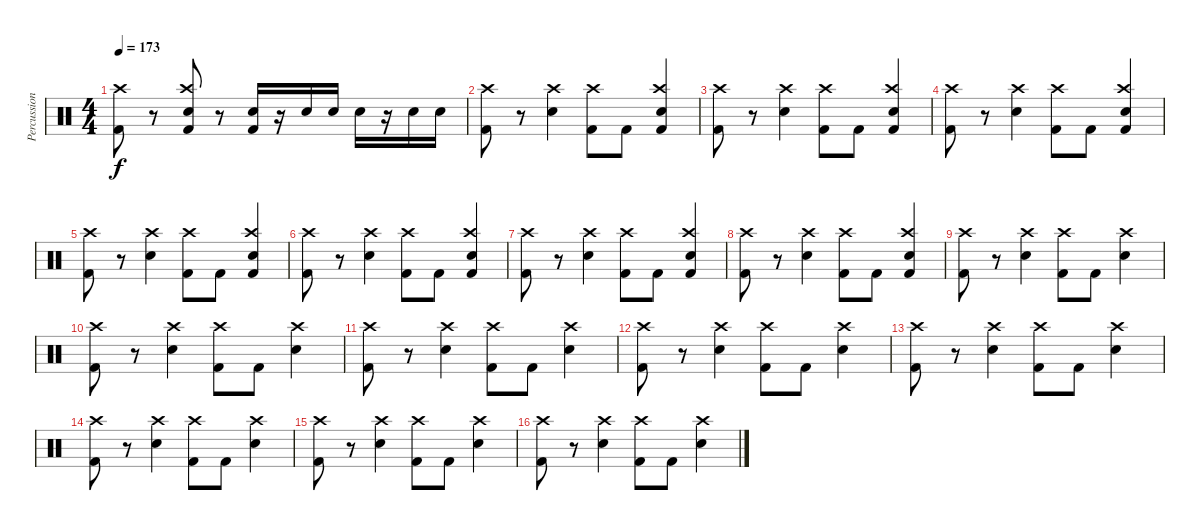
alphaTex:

\track ("Percussion" "Percussion") {instrument percussion}
\staff {score}
\articulation defaults
\ts (4 4)
\tempo 173
\clef neutral
\ks c
("Kick (hit) 2" "Crash high (hit)").8{dy f} r.8 ("Kick (hit) 2" "Electric Snare (hit)" "Crash high (hit)").8 r.8 ("Kick (hit) 2" "Electric Snare (hit)").16 r.16 "Electric Snare (hit)".16 "Electric Snare (hit)".16 "Electric Snare (hit)".16 r.16 "Electric Snare (hit)".16 "Electric Snare (hit)".16 |
("Kick (hit) 2" "Crash high (hit)").8 r.8 ("Electric Snare (hit)" "Crash high (hit)").4 ("Kick (hit) 2" "Crash high (hit)").8 "Kick (hit) 2".8 ("Kick (hit) 2" "Electric Snare (hit)" "Crash high (hit)").4 |
("Kick (hit) 2" "Crash high (hit)").8 r.8 ("Electric Snare (hit)" "Crash high (hit)").4 ("Kick (hit) 2" "Crash high (hit)").8 "Kick (hit) 2".8 ("Kick (hit) 2" "Electric Snare (hit)" "Crash high (hit)").4 |
("Kick (hit) 2" "Crash high (hit)").8 r.8 ("Electric Snare (hit)" "Crash high (hit)").4 ("Kick (hit) 2" "Crash high (hit)").8 "Kick (hit) 2".8 ("Kick (hit) 2" "Electric Snare (hit)" "Crash high (hit)").4 |
("Kick (hit) 2" "Crash high (hit)").8 r.8 ("Electric Snare (hit)" "Crash high (hit)").4 ("Kick (hit) 2" "Crash high (hit)").8 "Kick (hit) 2".8 ("Kick (hit) 2" "Electric Snare (hit)" "Crash high (hit)").4 |
("Kick (hit) 2" "Crash high (hit)").8 r.8 ("Electric Snare (hit)" "Crash high (hit)").4 ("Kick (hit) 2" "Crash high (hit)").8 "Kick (hit) 2".8 ("Kick (hit) 2" "Electric Snare (hit)" "Crash high (hit)").4 |
("Kick (hit) 2" "Crash high (hit)").8 r.8 ("Electric Snare (hit)" "Crash high (hit)").4 ("Kick (hit) 2" "Crash high (hit)").8 "Kick (hit) 2".8 ("Kick (hit) 2" "Electric Snare (hit)" "Crash high (hit)").4 |
("Kick (hit) 2" "Crash high (hit)").8 r.8 ("Electric Snare (hit)" "Crash high (hit)").4 ("Kick (hit) 2" "Crash high (hit)").8 "Kick (hit) 2".8 ("Kick (hit) 2" "Electric Snare (hit)" "Crash high (hit)").4 |
("Kick (hit) 2" "Crash high (hit)").8 r.8 ("Electric Snare (hit)" "Crash high (hit)").4 ("Kick (hit) 2" "Crash high (hit)").8 "Kick (hit) 2".8 ("Electric Snare (hit)" "Crash high (hit)").4 |
("Kick (hit) 2" "Crash high (hit)").8 r.8 ("Electric Snare (hit)" "Crash high (hit)").4 ("Kick (hit) 2" "Crash high (hit)").8 "Kick (hit) 2".8 ("Electric Snare (hit)" "Crash high (hit)").4 |
("Kick (hit) 2" "Crash high (hit)").8 r.8 ("Electric Snare (hit)" "Crash high (hit)").4 ("Kick (hit) 2" "Crash high (hit)").8 "Kick (hit) 2".8 ("Electric Snare (hit)" "Crash high (hit)").4 |
("Kick (hit) 2" "Crash high (hit)").8 r.8 ("Electric Snare (hit)" "Crash high (hit)").4 ("Kick (hit) 2" "Crash high (hit)").8 "Kick (hit) 2".8 ("Electric Snare (hit)" "Crash high (hit)").4 |
("Kick (hit) 2" "Crash high (hit)").8 r.8 ("Electric Snare (hit)" "Crash high (hit)").4 ("Kick (hit) 2" "Crash high (hit)").8 "Kick (hit) 2".8 ("Electric Snare (hit)" "Crash high (hit)").4 |
("Kick (hit) 2" "Crash high (hit)").8 r.8 ("Electric Snare (hit)" "Crash high (hit)").4 ("Kick (hit) 2" "Crash high (hit)").8 "Kick (hit) 2".8 ("Electric Snare (hit)" "Crash high (hit)").4 |
("Kick (hit) 2" "Crash high (hit)").8 r.8 ("Electric Snare (hit)" "Crash high (hit)").4 ("Kick (hit) 2" "Crash high (hit)").8 "Kick (hit) 2".8 ("Electric Snare (hit)" "Crash high (hit)").4 |
("Kick (hit) 2" "Crash high (hit)").8 r.8 ("Electric Snare (hit)" "Crash high (hit)").4 ("Kick (hit) 2" "Crash high (hit)").8 "Kick (hit) 2".8 ("Electric Snare (hit)" "Crash high (hit)").4
